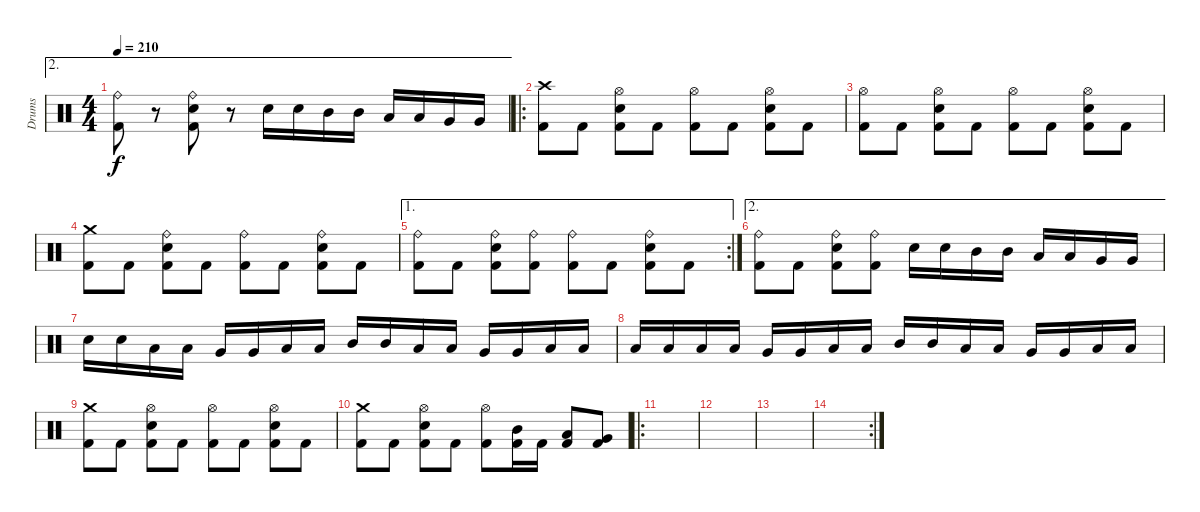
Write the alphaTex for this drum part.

\track ("Drums" "Drums") {instrument percussion}
\staff {score}
\articulation defaults
\ae 2
\ts (4 4)
\tempo 210
\clef neutral
\ks c
("Ride (bell)" "Kick (hit) 2").8{dy f} r.8 ("Ride (bell)" "Snare (hit) 2" "Kick (hit) 2").8 r.8 "Snare (hit) 2".16 "Snare (hit) 2".16 "Mid Tom (hit)".16 "Mid Tom (hit)".16 "Low Tom (hit)".16 "Low Tom (hit)".16 "Very Low Tom (hit)".16 "Very Low Tom (hit)".16 |
\ro
("Crash high (hit)" "Kick (hit) 2").8 "Kick (hit) 2".8 ("Hi-Hat (open)" "Snare (hit) 2" "Kick (hit) 2").8 "Kick (hit) 2".8 ("Hi-Hat (open)" "Kick (hit) 2").8 "Kick (hit) 2".8 ("Hi-Hat (open)" "Snare (hit) 2" "Kick (hit) 2").8 "Kick (hit) 2".8 |
("Hi-Hat (open)" "Kick (hit) 2").8 "Kick (hit) 2".8 ("Hi-Hat (open)" "Snare (hit) 2" "Kick (hit) 2").8 "Kick (hit) 2".8 ("Hi-Hat (open)" "Kick (hit) 2").8 "Kick (hit) 2".8 ("Hi-Hat (open)" "Snare (hit) 2" "Kick (hit) 2").8 "Kick (hit) 2".8 |
("Crash medium (hit)" "Kick (hit) 2").8 "Kick (hit) 2".8 ("Ride (bell)" "Snare (hit) 2" "Kick (hit) 2").8 "Kick (hit) 2".8 ("Ride (bell)" "Kick (hit) 2").8 "Kick (hit) 2".8 ("Ride (bell)" "Snare (hit) 2" "Kick (hit) 2").8 "Kick (hit) 2".8 |
\ae 1
\rc 2
("Ride (bell)" "Kick (hit) 2").8 "Kick (hit) 2".8 ("Ride (bell)" "Snare (hit) 2" "Kick (hit) 2").8 ("Ride (bell)" "Kick (hit) 2").8 ("Ride (bell)" "Kick (hit) 2").8 "Kick (hit) 2".8 ("Ride (bell)" "Snare (hit) 2" "Kick (hit) 2").8 "Kick (hit) 2".8 |
\ae 2
("Ride (bell)" "Kick (hit) 2").8 "Kick (hit) 2".8 ("Ride (bell)" "Snare (hit) 2" "Kick (hit) 2").8 ("Ride (bell)" "Kick (hit) 2").8 "Snare (hit) 2".16 "Snare (hit) 2".16 "Mid Tom (hit)".16 "Mid Tom (hit)".16 "Low Tom (hit)".16 "Low Tom (hit)".16 "Very Low Tom (hit)".16 "Very Low Tom (hit)".16 |
"Snare (hit) 2".16 "Snare (hit) 2".16 "Low Tom (hit)".16 "Low Tom (hit)".16 "Very Low Tom (hit)".16 "Very Low Tom (hit)".16 "Low Floor Tom (hit)".16 "Low Floor Tom (hit)".16 "Mid Tom (hit)".16 "Mid Tom (hit)".16 "Low Tom (hit)".16 "Low Tom (hit)".16 "Very Low Tom (hit)".16 "Very Low Tom (hit)".16 "Low Floor Tom (hit)".16 "Low Floor Tom (hit)".16 |
"Low Tom (hit)".16 "Low Tom (hit)".16 "Low Tom (hit)".16 "Low Tom (hit)".16 "Very Low Tom (hit)".16 "Very Low Tom (hit)".16 "Low Floor Tom (hit)".16 "Low Floor Tom (hit)".16 "Mid Tom (hit)".16 "Mid Tom (hit)".16 "Low Tom (hit)".16 "Low Tom (hit)".16 "Very Low Tom (hit)".16 "Very Low Tom (hit)".16 "Low Floor Tom (hit)".16 "Low Floor Tom (hit)".16 |
("Crash medium (hit)" "Kick (hit) 2").8 "Kick (hit) 2".8 ("Hi-Hat (open)" "Snare (hit) 2" "Kick (hit) 2").8 "Kick (hit) 2".8 ("Hi-Hat (open)" "Kick (hit) 2").8 "Kick (hit) 2".8 ("Hi-Hat (open)" "Snare (hit) 2" "Kick (hit) 2").8 "Kick (hit) 2".8 |
("Crash medium (hit)" "Kick (hit) 2").8 "Kick (hit) 2".8 ("Hi-Hat (open)" "Snare (hit) 2" "Kick (hit) 2").8 "Kick (hit) 2".8 ("Hi-Hat (open)" "Kick (hit) 2").8 ("Mid Tom (hit)" "Kick (hit) 2").16 "Kick (hit) 2".16 ("Low Tom (hit)" "Kick (hit) 2").8 ("Very Low Tom (hit)" "Kick (hit) 2").8 |
\ro
|
|
|
\rc 2
